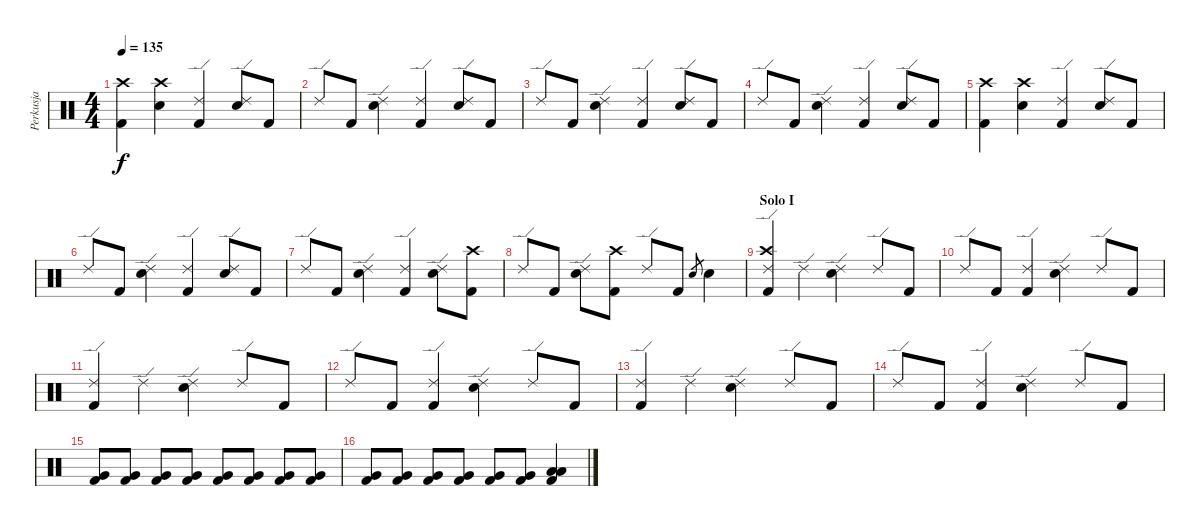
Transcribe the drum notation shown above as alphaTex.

\track ("Perkusja" "Perkusja") {instrument percussion}
\staff {score}
\articulation defaults
\ts (4 4)
\tempo 135
\clef neutral
\ks c
("Kick (hit) 2" "Crash high (hit)").4{dy f} ("Electric Snare (hit)" "Crash high (hit)").4 ("Kick (hit) 2" "Ride (edge) 2").4 ("Electric Snare (hit)" "Ride (edge) 2").8 "Kick (hit) 2".8 |
"Ride (edge) 2".8 "Kick (hit) 2".8 ("Electric Snare (hit)" "Ride (edge) 2").4 ("Kick (hit) 2" "Ride (edge) 2").4 ("Electric Snare (hit)" "Ride (edge) 2").8 "Kick (hit) 2".8 |
"Ride (edge) 2".8 "Kick (hit) 2".8 ("Electric Snare (hit)" "Ride (edge) 2").4 ("Kick (hit) 2" "Ride (edge) 2").4 ("Electric Snare (hit)" "Ride (edge) 2").8 "Kick (hit) 2".8 |
"Ride (edge) 2".8 "Kick (hit) 2".8 ("Electric Snare (hit)" "Ride (edge) 2").4 ("Kick (hit) 2" "Ride (edge) 2").4 ("Electric Snare (hit)" "Ride (edge) 2").8 "Kick (hit) 2".8 |
("Kick (hit) 2" "Crash high (hit)").4 ("Electric Snare (hit)" "Crash high (hit)").4 ("Kick (hit) 2" "Ride (edge) 2").4 ("Electric Snare (hit)" "Ride (edge) 2").8 "Kick (hit) 2".8 |
"Ride (edge) 2".8 "Kick (hit) 2".8 ("Electric Snare (hit)" "Ride (edge) 2").4 ("Kick (hit) 2" "Ride (edge) 2").4 ("Electric Snare (hit)" "Ride (edge) 2").8 "Kick (hit) 2".8 |
"Ride (edge) 2".8 "Kick (hit) 2".8 ("Electric Snare (hit)" "Ride (edge) 2").4 ("Kick (hit) 2" "Ride (edge) 2").4 ("Electric Snare (hit)" "Ride (edge) 2").8 ("Kick (hit) 2" "Crash high (hit)").8 |
"Ride (edge) 2".8 "Kick (hit) 2".8 ("Electric Snare (hit)" "Ride (edge) 2").8 ("Kick (hit) 2" "Crash high (hit)").8 "Ride (edge) 2".8 "Kick (hit) 2".8 "Electric Snare (hit)".8{gr} "Electric Snare (hit)".4 |
\section ("" "Solo I")
("Ride (edge) 2" "Crash high (hit)" "Kick (hit) 2").4 "Ride (edge) 2".4 ("Ride (edge) 2" "Electric Snare (hit)").4 "Ride (edge) 2".8 "Kick (hit) 2".8 |
"Ride (edge) 2".8 "Kick (hit) 2".8 ("Ride (edge) 2" "Kick (hit) 2").4 ("Ride (edge) 2" "Electric Snare (hit)").4 "Ride (edge) 2".8 "Kick (hit) 2".8 |
("Ride (edge) 2" "Kick (hit) 2").4 "Ride (edge) 2".4 ("Ride (edge) 2" "Electric Snare (hit)").4 "Ride (edge) 2".8 "Kick (hit) 2".8 |
"Ride (edge) 2".8 "Kick (hit) 2".8 ("Ride (edge) 2" "Kick (hit) 2").4 ("Ride (edge) 2" "Electric Snare (hit)").4 "Ride (edge) 2".8 "Kick (hit) 2".8 |
("Ride (edge) 2" "Kick (hit) 2").4 "Ride (edge) 2".4 ("Ride (edge) 2" "Electric Snare (hit)").4 "Ride (edge) 2".8 "Kick (hit) 2".8 |
"Ride (edge) 2".8 "Kick (hit) 2".8 ("Ride (edge) 2" "Kick (hit) 2").4 ("Ride (edge) 2" "Electric Snare (hit)").4 "Ride (edge) 2".8 "Kick (hit) 2".8 |
("Very Low Tom (hit)" "Kick (hit) 2").8 ("Very Low Tom (hit)" "Kick (hit) 2").8 ("Very Low Tom (hit)" "Kick (hit) 2").8 ("Very Low Tom (hit)" "Kick (hit) 2").8 ("Very Low Tom (hit)" "Kick (hit) 2").8 ("Very Low Tom (hit)" "Kick (hit) 2").8 ("Very Low Tom (hit)" "Kick (hit) 2").8 ("Very Low Tom (hit)" "Kick (hit) 2").8 |
("Very Low Tom (hit)" "Kick (hit) 2").8 ("Very Low Tom (hit)" "Kick (hit) 2").8 ("Very Low Tom (hit)" "Kick (hit) 2").8 ("Very Low Tom (hit)" "Kick (hit) 2").8 ("Very Low Tom (hit)" "Kick (hit) 2").8 ("Very Low Tom (hit)" "Kick (hit) 2").8 ("Kick (hit) 2" "Low Floor Tom (hit)" "Low Tom (hit)").4
